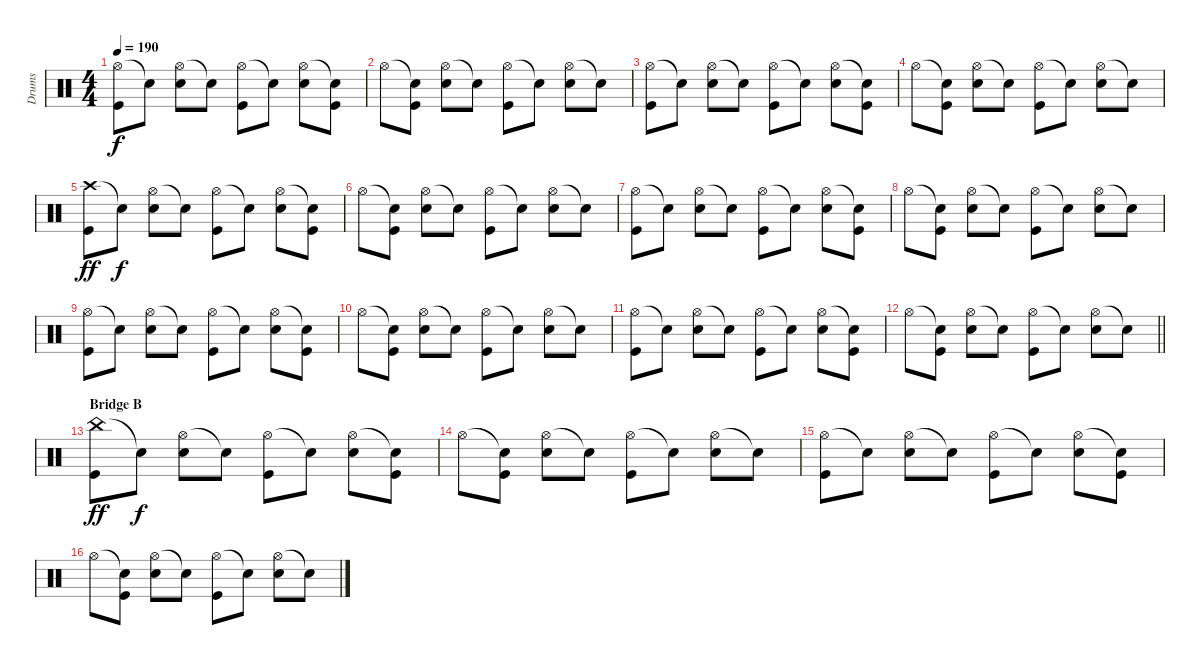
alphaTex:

\track ("Drums" "Drums") {instrument percussion}
\staff {score}
\articulation defaults
\ts (4 4)
\tempo 190
\clef neutral
\ks c
("Hi-Hat (open)" "Kick (hit)").8{dy f} "Snare (hit)"{t}.8 ("Hi-Hat (open)" "Snare (hit) 2").8 "Snare (hit)"{t}.8 ("Hi-Hat (open)" "Kick (hit)").8 "Snare (hit)"{t}.8 ("Hi-Hat (open)" "Snare (hit) 2").8 ("Snare (hit)"{t} "Kick (hit)").8 |
"Hi-Hat (open)".8 ("Snare (hit)"{t} "Kick (hit)").8 ("Hi-Hat (open)" "Snare (hit) 2").8 "Snare (hit)"{t}.8 ("Hi-Hat (open)" "Kick (hit)").8 "Snare (hit)"{t}.8 ("Hi-Hat (open)" "Snare (hit) 2").8 "Snare (hit)"{t}.8 |
("Hi-Hat (open)" "Kick (hit)").8 "Snare (hit)"{t}.8 ("Hi-Hat (open)" "Snare (hit) 2").8 "Snare (hit)"{t}.8 ("Hi-Hat (open)" "Kick (hit)").8 "Snare (hit)"{t}.8 ("Hi-Hat (open)" "Snare (hit) 2").8 ("Snare (hit)"{t} "Kick (hit)").8 |
"Hi-Hat (open)".8 ("Snare (hit)"{t} "Kick (hit)").8 ("Hi-Hat (open)" "Snare (hit) 2").8 "Snare (hit)"{t}.8 ("Hi-Hat (open)" "Kick (hit)").8 "Snare (hit)"{t}.8 ("Hi-Hat (open)" "Snare (hit) 2").8 "Snare (hit)"{t}.8 |
("Crash high (hit)" "Kick (hit)").8{dy ff} "Snare (hit)"{t}.8{dy f} ("Hi-Hat (open)" "Snare (hit) 2").8 "Snare (hit)"{t}.8 ("Hi-Hat (open)" "Kick (hit)").8 "Snare (hit)"{t}.8 ("Hi-Hat (open)" "Snare (hit) 2").8 ("Snare (hit)"{t} "Kick (hit)").8 |
"Hi-Hat (open)".8 ("Snare (hit)"{t} "Kick (hit)").8 ("Hi-Hat (open)" "Snare (hit) 2").8 "Snare (hit)"{t}.8 ("Hi-Hat (open)" "Kick (hit)").8 "Snare (hit)"{t}.8 ("Hi-Hat (open)" "Snare (hit) 2").8 "Snare (hit)"{t}.8 |
("Hi-Hat (open)" "Kick (hit)").8 "Snare (hit)"{t}.8 ("Hi-Hat (open)" "Snare (hit) 2").8 "Snare (hit)"{t}.8 ("Hi-Hat (open)" "Kick (hit)").8 "Snare (hit)"{t}.8 ("Hi-Hat (open)" "Snare (hit) 2").8 ("Snare (hit)"{t} "Kick (hit)").8 |
"Hi-Hat (open)".8 ("Snare (hit)"{t} "Kick (hit)").8 ("Hi-Hat (open)" "Snare (hit) 2").8 "Snare (hit)"{t}.8 ("Hi-Hat (open)" "Kick (hit)").8 "Snare (hit)"{t}.8 ("Hi-Hat (open)" "Snare (hit) 2").8 "Snare (hit)"{t}.8 |
("Hi-Hat (open)" "Kick (hit)").8 "Snare (hit)"{t}.8 ("Hi-Hat (open)" "Snare (hit) 2").8 "Snare (hit)"{t}.8 ("Hi-Hat (open)" "Kick (hit)").8 "Snare (hit)"{t}.8 ("Hi-Hat (open)" "Snare (hit) 2").8 ("Snare (hit)"{t} "Kick (hit)").8 |
"Hi-Hat (open)".8 ("Snare (hit)"{t} "Kick (hit)").8 ("Hi-Hat (open)" "Snare (hit) 2").8 "Snare (hit)"{t}.8 ("Hi-Hat (open)" "Kick (hit)").8 "Snare (hit)"{t}.8 ("Hi-Hat (open)" "Snare (hit) 2").8 "Snare (hit)"{t}.8 |
("Hi-Hat (open)" "Kick (hit)").8 "Snare (hit)"{t}.8 ("Hi-Hat (open)" "Snare (hit) 2").8 "Snare (hit)"{t}.8 ("Hi-Hat (open)" "Kick (hit)").8 "Snare (hit)"{t}.8 ("Hi-Hat (open)" "Snare (hit) 2").8 ("Snare (hit)"{t} "Kick (hit)").8 |
\barLineRight lightlight "Hi-Hat (open)".8
("Snare (hit)"{t} "Kick (hit)").8 ("Hi-Hat (open)" "Snare (hit) 2").8 "Snare (hit)"{t}.8 ("Hi-Hat (open)" "Kick (hit)").8 "Snare (hit)"{t}.8 ("Hi-Hat (open)" "Snare (hit) 2").8 "Snare (hit)"{t}.8 |
\section ("" "Bridge B")
("China (hit)" "Kick (hit)").8{dy ff} "Snare (hit)"{t}.8{dy f} ("Hi-Hat (open)" "Snare (hit) 2").8 "Snare (hit)"{t}.8 ("Hi-Hat (open)" "Kick (hit)").8 "Snare (hit)"{t}.8 ("Hi-Hat (open)" "Snare (hit) 2").8 ("Snare (hit)"{t} "Kick (hit)").8 |
"Hi-Hat (open)".8 ("Snare (hit)"{t} "Kick (hit)").8 ("Hi-Hat (open)" "Snare (hit) 2").8 "Snare (hit)"{t}.8 ("Hi-Hat (open)" "Kick (hit)").8 "Snare (hit)"{t}.8 ("Hi-Hat (open)" "Snare (hit) 2").8 "Snare (hit)"{t}.8 |
("Hi-Hat (open)" "Kick (hit)").8 "Snare (hit)"{t}.8 ("Hi-Hat (open)" "Snare (hit) 2").8 "Snare (hit)"{t}.8 ("Hi-Hat (open)" "Kick (hit)").8 "Snare (hit)"{t}.8 ("Hi-Hat (open)" "Snare (hit) 2").8 ("Snare (hit)"{t} "Kick (hit)").8 |
"Hi-Hat (open)".8 ("Snare (hit)"{t} "Kick (hit)").8 ("Hi-Hat (open)" "Snare (hit) 2").8 "Snare (hit)"{t}.8 ("Hi-Hat (open)" "Kick (hit)").8 "Snare (hit)"{t}.8 ("Hi-Hat (open)" "Snare (hit) 2").8 "Snare (hit)"{t}.8
